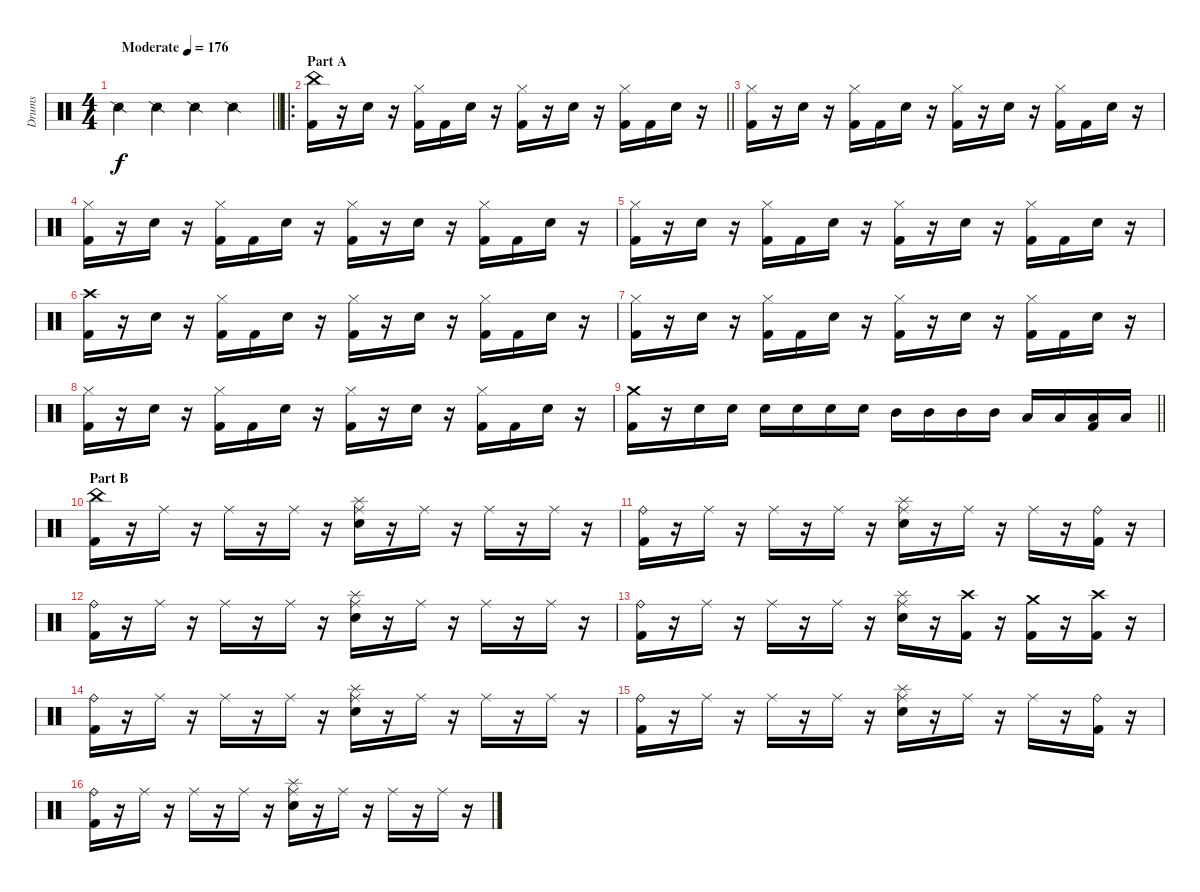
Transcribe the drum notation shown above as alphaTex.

\track ("Drums" "Drums") {instrument percussion}
\staff {score}
\articulation defaults
\ts (4 4)
\tempo (176 "Moderate")
\clef neutral
\barLineRight lightlight
\ks c "Snare (side stick) 2".4{dy f} "Snare (side stick) 2".4 "Snare (side stick) 2".4 "Snare (side stick) 2".4
|
\ro
\section ("" "Part A")
\barLineRight lightlight
("China (hit)" "Kick (hit) 2").16 r.16 "Snare (hit) 2".16 r.16 ("Hi-Hat (closed)" "Kick (hit) 2").16 "Kick (hit) 2".16 "Snare (hit) 2".16 r.16 ("Hi-Hat (closed)" "Kick (hit) 2").16 r.16 "Snare (hit) 2".16 r.16 ("Hi-Hat (closed)" "Kick (hit) 2").16 "Kick (hit) 2".16 "Snare (hit) 2".16 r.16 |
("Hi-Hat (closed)" "Kick (hit) 2").16 r.16 "Snare (hit) 2".16 r.16 ("Hi-Hat (closed)" "Kick (hit) 2").16 "Kick (hit) 2".16 "Snare (hit) 2".16 r.16 ("Hi-Hat (closed)" "Kick (hit) 2").16 r.16 "Snare (hit) 2".16 r.16 ("Hi-Hat (closed)" "Kick (hit) 2").16 "Kick (hit) 2".16 "Snare (hit) 2".16 r.16 |
("Hi-Hat (closed)" "Kick (hit) 2").16 r.16 "Snare (hit) 2".16 r.16 ("Hi-Hat (closed)" "Kick (hit) 2").16 "Kick (hit) 2".16 "Snare (hit) 2".16 r.16 ("Hi-Hat (closed)" "Kick (hit) 2").16 r.16 "Snare (hit) 2".16 r.16 ("Hi-Hat (closed)" "Kick (hit) 2").16 "Kick (hit) 2".16 "Snare (hit) 2".16 r.16 |
("Hi-Hat (closed)" "Kick (hit) 2").16 r.16 "Snare (hit) 2".16 r.16 ("Hi-Hat (closed)" "Kick (hit) 2").16 "Kick (hit) 2".16 "Snare (hit) 2".16 r.16 ("Hi-Hat (closed)" "Kick (hit) 2").16 r.16 "Snare (hit) 2".16 r.16 ("Hi-Hat (closed)" "Kick (hit) 2").16 "Kick (hit) 2".16 "Snare (hit) 2".16 r.16 |
("Crash high (hit)" "Kick (hit) 2").16 r.16 "Snare (hit) 2".16 r.16 ("Hi-Hat (closed)" "Kick (hit) 2").16 "Kick (hit) 2".16 "Snare (hit) 2".16 r.16 ("Hi-Hat (closed)" "Kick (hit) 2").16 r.16 "Snare (hit) 2".16 r.16 ("Hi-Hat (closed)" "Kick (hit) 2").16 "Kick (hit) 2".16 "Snare (hit) 2".16 r.16 |
("Hi-Hat (closed)" "Kick (hit) 2").16 r.16 "Snare (hit) 2".16 r.16 ("Hi-Hat (closed)" "Kick (hit) 2").16 "Kick (hit) 2".16 "Snare (hit) 2".16 r.16 ("Hi-Hat (closed)" "Kick (hit) 2").16 r.16 "Snare (hit) 2".16 r.16 ("Hi-Hat (closed)" "Kick (hit) 2").16 "Kick (hit) 2".16 "Snare (hit) 2".16 r.16 |
("Hi-Hat (closed)" "Kick (hit) 2").16 r.16 "Snare (hit) 2".16 r.16 ("Hi-Hat (closed)" "Kick (hit) 2").16 "Kick (hit) 2".16 "Snare (hit) 2".16 r.16 ("Hi-Hat (closed)" "Kick (hit) 2").16 r.16 "Snare (hit) 2".16 r.16 ("Hi-Hat (closed)" "Kick (hit) 2").16 "Kick (hit) 2".16 "Snare (hit) 2".16 r.16 |
\barLineRight lightlight
("Crash medium (hit)" "Kick (hit) 2").16 r.16 "Snare (hit) 2".16 "Snare (hit) 2".16 "Snare (hit) 2".16 "Snare (hit) 2".16 "Snare (hit) 2".16 "Snare (hit) 2".16 "Mid Tom (hit)".16 "Mid Tom (hit)".16 "Mid Tom (hit)".16 "Mid Tom (hit)".16 "Low Tom (hit)".16 "Low Tom (hit)".16 ("Low Tom (hit)" "Kick (hit) 2").16 "Low Tom (hit)".16 |
\section ("" "Part B")
("China (hit)" "Kick (hit) 2").16 r.16 "Ride (middle)".16 r.16 "Ride (middle)".16 r.16 "Ride (middle)".16 r.16 ("Ride (middle)" "Splash (hit)" "Snare (hit) 2").16 r.16 "Ride (middle)".16 r.16 "Ride (middle)".16 r.16 "Ride (middle)".16 r.16 |
("Ride (bell)" "Kick (hit) 2").16 r.16 "Ride (middle)".16 r.16 "Ride (middle)".16 r.16 "Ride (middle)".16 r.16 ("Ride (middle)" "Splash (hit)" "Snare (hit) 2").16 r.16 "Ride (middle)".16 r.16 "Ride (middle)".16 r.16 ("Ride (bell)" "Kick (hit) 2").16 r.16 |
("Ride (bell)" "Kick (hit) 2").16 r.16 "Ride (middle)".16 r.16 "Ride (middle)".16 r.16 "Ride (middle)".16 r.16 ("Ride (middle)" "Splash (hit)" "Snare (hit) 2").16 r.16 "Ride (middle)".16 r.16 "Ride (middle)".16 r.16 "Ride (middle)".16 r.16 |
("Ride (bell)" "Kick (hit) 2").16 r.16 "Ride (middle)".16 r.16 "Ride (middle)".16 r.16 "Ride (middle)".16 r.16 ("Ride (middle)" "Splash (hit)" "Snare (hit) 2").16 r.16 ("Crash high (hit)" "Kick (hit) 2").16 r.16 ("Crash medium (hit)" "Kick (hit) 2").16 r.16 ("Crash high (hit)" "Kick (hit) 2").16 r.16 |
("Ride (bell)" "Kick (hit) 2").16 r.16 "Ride (middle)".16 r.16 "Ride (middle)".16 r.16 "Ride (middle)".16 r.16 ("Ride (middle)" "Splash (hit)" "Snare (hit) 2").16 r.16 "Ride (middle)".16 r.16 "Ride (middle)".16 r.16 "Ride (middle)".16 r.16 |
("Ride (bell)" "Kick (hit) 2").16 r.16 "Ride (middle)".16 r.16 "Ride (middle)".16 r.16 "Ride (middle)".16 r.16 ("Ride (middle)" "Splash (hit)" "Snare (hit) 2").16 r.16 "Ride (middle)".16 r.16 "Ride (middle)".16 r.16 ("Ride (bell)" "Kick (hit) 2").16 r.16 |
("Ride (bell)" "Kick (hit) 2").16 r.16 "Ride (middle)".16 r.16 "Ride (middle)".16 r.16 "Ride (middle)".16 r.16 ("Ride (middle)" "Splash (hit)" "Snare (hit) 2").16 r.16 "Ride (middle)".16 r.16 "Ride (middle)".16 r.16 "Ride (middle)".16 r.16
